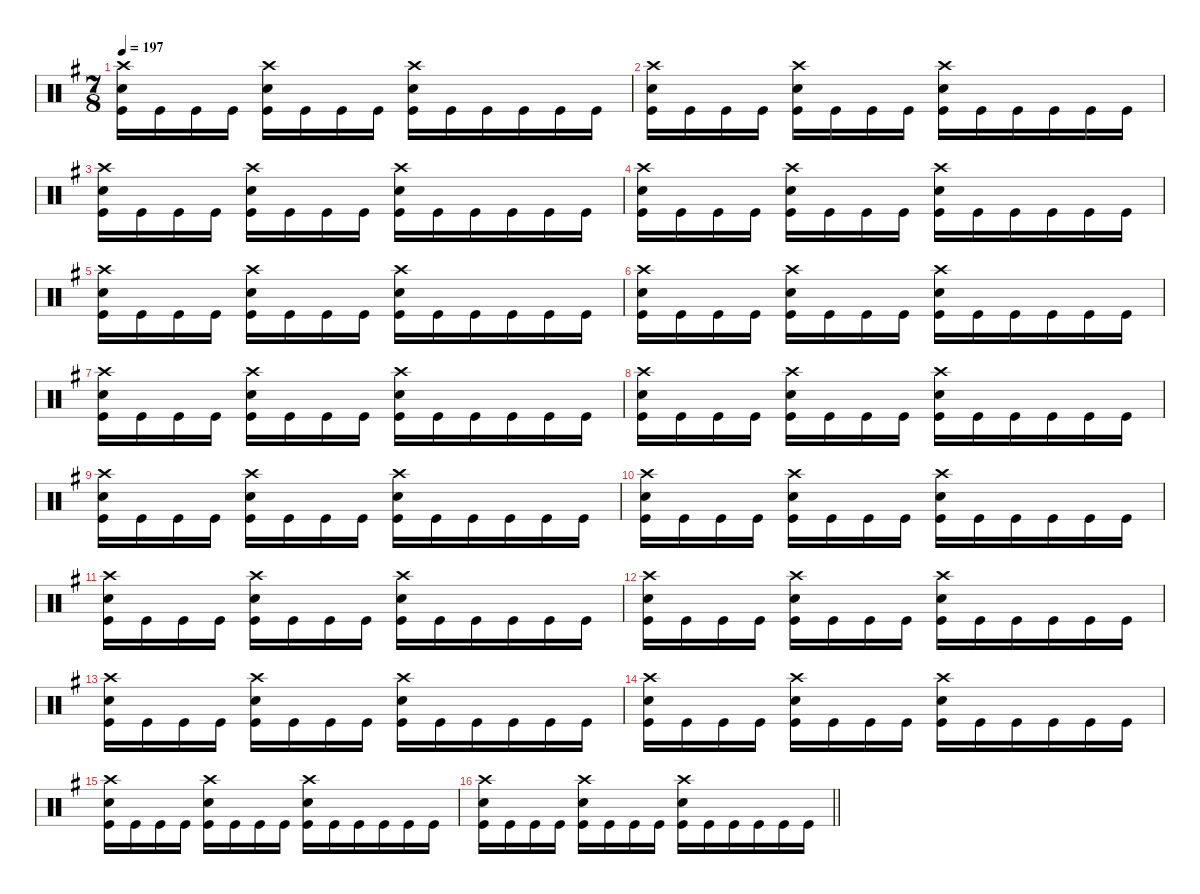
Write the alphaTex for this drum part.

\defaultSystemsLayout 4
\hideDynamics
\bracketExtendMode nobrackets
\singleTrackTrackNamePolicy hidden
\multiTrackTrackNamePolicy hidden
\firstSystemTrackNameMode fullname
\firstSystemTrackNameOrientation horizontal
\otherSystemsTrackNameOrientation horizontal
\track ("Drums" "drm.") {defaultSystemsLayout 4 instrument percussion}
\staff {score}
\articulation defaults
\ts (7 8)
\beaming (8 2 2 3)
\tempo 197
\clef neutral
\ks eminor
("Crash high (hit)"{acc forcenatural} "Snare (hit) 2"{acc forcenatural} "Kick (hit)"{acc forcenatural}).16{dy f beam Down} "Kick (hit)"{acc forcenatural}.16{beam Down} "Kick (hit)"{acc forcenatural}.16{beam Down} "Kick (hit)"{acc forcenatural}.16{beam Down} ("Crash high (hit)"{acc forcenatural} "Snare (hit) 2"{acc forcenatural} "Kick (hit)"{acc forcenatural}).16{beam Down} "Kick (hit)"{acc forcenatural}.16{beam Down} "Kick (hit)"{acc forcenatural}.16{beam Down} "Kick (hit)"{acc forcenatural}.16{beam Down} ("Crash high (hit)"{acc forcenatural} "Snare (hit) 2"{acc forcenatural} "Kick (hit)"{acc forcenatural}).16{beam Down} "Kick (hit)"{acc forcenatural}.16{beam Down} "Kick (hit)"{acc forcenatural}.16{beam Down} "Kick (hit)"{acc forcenatural}.16{beam Down} "Kick (hit)"{acc forcenatural}.16{beam Down} "Kick (hit)"{acc forcenatural}.16{beam Down} |
("Crash high (hit)"{acc forcenatural} "Snare (hit) 2"{acc forcenatural} "Kick (hit)"{acc forcenatural}).16{beam Down} "Kick (hit)"{acc forcenatural}.16{beam Down} "Kick (hit)"{acc forcenatural}.16{beam Down} "Kick (hit)"{acc forcenatural}.16{beam Down} ("Crash high (hit)"{acc forcenatural} "Snare (hit) 2"{acc forcenatural} "Kick (hit)"{acc forcenatural}).16{beam Down} "Kick (hit)"{acc forcenatural}.16{beam Down} "Kick (hit)"{acc forcenatural}.16{beam Down} "Kick (hit)"{acc forcenatural}.16{beam Down} ("Crash high (hit)"{acc forcenatural} "Snare (hit) 2"{acc forcenatural} "Kick (hit)"{acc forcenatural}).16{beam Down} "Kick (hit)"{acc forcenatural}.16{beam Down} "Kick (hit)"{acc forcenatural}.16{beam Down} "Kick (hit)"{acc forcenatural}.16{beam Down} "Kick (hit)"{acc forcenatural}.16{beam Down} "Kick (hit)"{acc forcenatural}.16{beam Down} |
("Crash high (hit)"{acc forcenatural} "Snare (hit) 2"{acc forcenatural} "Kick (hit)"{acc forcenatural}).16{beam Down} "Kick (hit)"{acc forcenatural}.16{beam Down} "Kick (hit)"{acc forcenatural}.16{beam Down} "Kick (hit)"{acc forcenatural}.16{beam Down} ("Crash high (hit)"{acc forcenatural} "Snare (hit) 2"{acc forcenatural} "Kick (hit)"{acc forcenatural}).16{beam Down} "Kick (hit)"{acc forcenatural}.16{beam Down} "Kick (hit)"{acc forcenatural}.16{beam Down} "Kick (hit)"{acc forcenatural}.16{beam Down} ("Crash high (hit)"{acc forcenatural} "Snare (hit) 2"{acc forcenatural} "Kick (hit)"{acc forcenatural}).16{beam Down} "Kick (hit)"{acc forcenatural}.16{beam Down} "Kick (hit)"{acc forcenatural}.16{beam Down} "Kick (hit)"{acc forcenatural}.16{beam Down} "Kick (hit)"{acc forcenatural}.16{beam Down} "Kick (hit)"{acc forcenatural}.16{beam Down} |
("Crash high (hit)"{acc forcenatural} "Snare (hit) 2"{acc forcenatural} "Kick (hit)"{acc forcenatural}).16{beam Down} "Kick (hit)"{acc forcenatural}.16{beam Down} "Kick (hit)"{acc forcenatural}.16{beam Down} "Kick (hit)"{acc forcenatural}.16{beam Down} ("Crash high (hit)"{acc forcenatural} "Snare (hit) 2"{acc forcenatural} "Kick (hit)"{acc forcenatural}).16{beam Down} "Kick (hit)"{acc forcenatural}.16{beam Down} "Kick (hit)"{acc forcenatural}.16{beam Down} "Kick (hit)"{acc forcenatural}.16{beam Down} ("Crash high (hit)"{acc forcenatural} "Snare (hit) 2"{acc forcenatural} "Kick (hit)"{acc forcenatural}).16{beam Down} "Kick (hit)"{acc forcenatural}.16{beam Down} "Kick (hit)"{acc forcenatural}.16{beam Down} "Kick (hit)"{acc forcenatural}.16{beam Down} "Kick (hit)"{acc forcenatural}.16{beam Down} "Kick (hit)"{acc forcenatural}.16{beam Down} |
("Crash high (hit)"{acc forcenatural} "Snare (hit) 2"{acc forcenatural} "Kick (hit)"{acc forcenatural}).16{beam Down} "Kick (hit)"{acc forcenatural}.16{beam Down} "Kick (hit)"{acc forcenatural}.16{beam Down} "Kick (hit)"{acc forcenatural}.16{beam Down} ("Crash high (hit)"{acc forcenatural} "Snare (hit) 2"{acc forcenatural} "Kick (hit)"{acc forcenatural}).16{beam Down} "Kick (hit)"{acc forcenatural}.16{beam Down} "Kick (hit)"{acc forcenatural}.16{beam Down} "Kick (hit)"{acc forcenatural}.16{beam Down} ("Crash high (hit)"{acc forcenatural} "Snare (hit) 2"{acc forcenatural} "Kick (hit)"{acc forcenatural}).16{beam Down} "Kick (hit)"{acc forcenatural}.16{beam Down} "Kick (hit)"{acc forcenatural}.16{beam Down} "Kick (hit)"{acc forcenatural}.16{beam Down} "Kick (hit)"{acc forcenatural}.16{beam Down} "Kick (hit)"{acc forcenatural}.16{beam Down} |
("Crash high (hit)"{acc forcenatural} "Snare (hit) 2"{acc forcenatural} "Kick (hit)"{acc forcenatural}).16{beam Down} "Kick (hit)"{acc forcenatural}.16{beam Down} "Kick (hit)"{acc forcenatural}.16{beam Down} "Kick (hit)"{acc forcenatural}.16{beam Down} ("Crash high (hit)"{acc forcenatural} "Snare (hit) 2"{acc forcenatural} "Kick (hit)"{acc forcenatural}).16{beam Down} "Kick (hit)"{acc forcenatural}.16{beam Down} "Kick (hit)"{acc forcenatural}.16{beam Down} "Kick (hit)"{acc forcenatural}.16{beam Down} ("Crash high (hit)"{acc forcenatural} "Snare (hit) 2"{acc forcenatural} "Kick (hit)"{acc forcenatural}).16{beam Down} "Kick (hit)"{acc forcenatural}.16{beam Down} "Kick (hit)"{acc forcenatural}.16{beam Down} "Kick (hit)"{acc forcenatural}.16{beam Down} "Kick (hit)"{acc forcenatural}.16{beam Down} "Kick (hit)"{acc forcenatural}.16{beam Down} |
("Crash high (hit)"{acc forcenatural} "Snare (hit) 2"{acc forcenatural} "Kick (hit)"{acc forcenatural}).16{beam Down} "Kick (hit)"{acc forcenatural}.16{beam Down} "Kick (hit)"{acc forcenatural}.16{beam Down} "Kick (hit)"{acc forcenatural}.16{beam Down} ("Crash high (hit)"{acc forcenatural} "Snare (hit) 2"{acc forcenatural} "Kick (hit)"{acc forcenatural}).16{beam Down} "Kick (hit)"{acc forcenatural}.16{beam Down} "Kick (hit)"{acc forcenatural}.16{beam Down} "Kick (hit)"{acc forcenatural}.16{beam Down} ("Crash high (hit)"{acc forcenatural} "Snare (hit) 2"{acc forcenatural} "Kick (hit)"{acc forcenatural}).16{beam Down} "Kick (hit)"{acc forcenatural}.16{beam Down} "Kick (hit)"{acc forcenatural}.16{beam Down} "Kick (hit)"{acc forcenatural}.16{beam Down} "Kick (hit)"{acc forcenatural}.16{beam Down} "Kick (hit)"{acc forcenatural}.16{beam Down} |
("Crash high (hit)"{acc forcenatural} "Snare (hit) 2"{acc forcenatural} "Kick (hit)"{acc forcenatural}).16{beam Down} "Kick (hit)"{acc forcenatural}.16{beam Down} "Kick (hit)"{acc forcenatural}.16{beam Down} "Kick (hit)"{acc forcenatural}.16{beam Down} ("Crash high (hit)"{acc forcenatural} "Snare (hit) 2"{acc forcenatural} "Kick (hit)"{acc forcenatural}).16{beam Down} "Kick (hit)"{acc forcenatural}.16{beam Down} "Kick (hit)"{acc forcenatural}.16{beam Down} "Kick (hit)"{acc forcenatural}.16{beam Down} ("Crash high (hit)"{acc forcenatural} "Snare (hit) 2"{acc forcenatural} "Kick (hit)"{acc forcenatural}).16{beam Down} "Kick (hit)"{acc forcenatural}.16{beam Down} "Kick (hit)"{acc forcenatural}.16{beam Down} "Kick (hit)"{acc forcenatural}.16{beam Down} "Kick (hit)"{acc forcenatural}.16{beam Down} "Kick (hit)"{acc forcenatural}.16{beam Down} |
("Crash high (hit)"{acc forcenatural} "Snare (hit) 2"{acc forcenatural} "Kick (hit)"{acc forcenatural}).16{beam Down} "Kick (hit)"{acc forcenatural}.16{beam Down} "Kick (hit)"{acc forcenatural}.16{beam Down} "Kick (hit)"{acc forcenatural}.16{beam Down} ("Crash high (hit)"{acc forcenatural} "Snare (hit) 2"{acc forcenatural} "Kick (hit)"{acc forcenatural}).16{beam Down} "Kick (hit)"{acc forcenatural}.16{beam Down} "Kick (hit)"{acc forcenatural}.16{beam Down} "Kick (hit)"{acc forcenatural}.16{beam Down} ("Crash high (hit)"{acc forcenatural} "Snare (hit) 2"{acc forcenatural} "Kick (hit)"{acc forcenatural}).16{beam Down} "Kick (hit)"{acc forcenatural}.16{beam Down} "Kick (hit)"{acc forcenatural}.16{beam Down} "Kick (hit)"{acc forcenatural}.16{beam Down} "Kick (hit)"{acc forcenatural}.16{beam Down} "Kick (hit)"{acc forcenatural}.16{beam Down} |
("Crash high (hit)"{acc forcenatural} "Snare (hit) 2"{acc forcenatural} "Kick (hit)"{acc forcenatural}).16{beam Down} "Kick (hit)"{acc forcenatural}.16{beam Down} "Kick (hit)"{acc forcenatural}.16{beam Down} "Kick (hit)"{acc forcenatural}.16{beam Down} ("Crash high (hit)"{acc forcenatural} "Snare (hit) 2"{acc forcenatural} "Kick (hit)"{acc forcenatural}).16{beam Down} "Kick (hit)"{acc forcenatural}.16{beam Down} "Kick (hit)"{acc forcenatural}.16{beam Down} "Kick (hit)"{acc forcenatural}.16{beam Down} ("Crash high (hit)"{acc forcenatural} "Snare (hit) 2"{acc forcenatural} "Kick (hit)"{acc forcenatural}).16{beam Down} "Kick (hit)"{acc forcenatural}.16{beam Down} "Kick (hit)"{acc forcenatural}.16{beam Down} "Kick (hit)"{acc forcenatural}.16{beam Down} "Kick (hit)"{acc forcenatural}.16{beam Down} "Kick (hit)"{acc forcenatural}.16{beam Down} |
("Crash high (hit)"{acc forcenatural} "Snare (hit) 2"{acc forcenatural} "Kick (hit)"{acc forcenatural}).16{beam Down} "Kick (hit)"{acc forcenatural}.16{beam Down} "Kick (hit)"{acc forcenatural}.16{beam Down} "Kick (hit)"{acc forcenatural}.16{beam Down} ("Crash high (hit)"{acc forcenatural} "Snare (hit) 2"{acc forcenatural} "Kick (hit)"{acc forcenatural}).16{beam Down} "Kick (hit)"{acc forcenatural}.16{beam Down} "Kick (hit)"{acc forcenatural}.16{beam Down} "Kick (hit)"{acc forcenatural}.16{beam Down} ("Crash high (hit)"{acc forcenatural} "Snare (hit) 2"{acc forcenatural} "Kick (hit)"{acc forcenatural}).16{beam Down} "Kick (hit)"{acc forcenatural}.16{beam Down} "Kick (hit)"{acc forcenatural}.16{beam Down} "Kick (hit)"{acc forcenatural}.16{beam Down} "Kick (hit)"{acc forcenatural}.16{beam Down} "Kick (hit)"{acc forcenatural}.16{beam Down} |
("Crash high (hit)"{acc forcenatural} "Snare (hit) 2"{acc forcenatural} "Kick (hit)"{acc forcenatural}).16{beam Down} "Kick (hit)"{acc forcenatural}.16{beam Down} "Kick (hit)"{acc forcenatural}.16{beam Down} "Kick (hit)"{acc forcenatural}.16{beam Down} ("Crash high (hit)"{acc forcenatural} "Snare (hit) 2"{acc forcenatural} "Kick (hit)"{acc forcenatural}).16{beam Down} "Kick (hit)"{acc forcenatural}.16{beam Down} "Kick (hit)"{acc forcenatural}.16{beam Down} "Kick (hit)"{acc forcenatural}.16{beam Down} ("Crash high (hit)"{acc forcenatural} "Snare (hit) 2"{acc forcenatural} "Kick (hit)"{acc forcenatural}).16{beam Down} "Kick (hit)"{acc forcenatural}.16{beam Down} "Kick (hit)"{acc forcenatural}.16{beam Down} "Kick (hit)"{acc forcenatural}.16{beam Down} "Kick (hit)"{acc forcenatural}.16{beam Down} "Kick (hit)"{acc forcenatural}.16{beam Down} |
("Crash high (hit)"{acc forcenatural} "Snare (hit) 2"{acc forcenatural} "Kick (hit)"{acc forcenatural}).16{beam Down} "Kick (hit)"{acc forcenatural}.16{beam Down} "Kick (hit)"{acc forcenatural}.16{beam Down} "Kick (hit)"{acc forcenatural}.16{beam Down} ("Crash high (hit)"{acc forcenatural} "Snare (hit) 2"{acc forcenatural} "Kick (hit)"{acc forcenatural}).16{beam Down} "Kick (hit)"{acc forcenatural}.16{beam Down} "Kick (hit)"{acc forcenatural}.16{beam Down} "Kick (hit)"{acc forcenatural}.16{beam Down} ("Crash high (hit)"{acc forcenatural} "Snare (hit) 2"{acc forcenatural} "Kick (hit)"{acc forcenatural}).16{beam Down} "Kick (hit)"{acc forcenatural}.16{beam Down} "Kick (hit)"{acc forcenatural}.16{beam Down} "Kick (hit)"{acc forcenatural}.16{beam Down} "Kick (hit)"{acc forcenatural}.16{beam Down} "Kick (hit)"{acc forcenatural}.16{beam Down} |
("Crash high (hit)"{acc forcenatural} "Snare (hit) 2"{acc forcenatural} "Kick (hit)"{acc forcenatural}).16{beam Down} "Kick (hit)"{acc forcenatural}.16{beam Down} "Kick (hit)"{acc forcenatural}.16{beam Down} "Kick (hit)"{acc forcenatural}.16{beam Down} ("Crash high (hit)"{acc forcenatural} "Snare (hit) 2"{acc forcenatural} "Kick (hit)"{acc forcenatural}).16{beam Down} "Kick (hit)"{acc forcenatural}.16{beam Down} "Kick (hit)"{acc forcenatural}.16{beam Down} "Kick (hit)"{acc forcenatural}.16{beam Down} ("Crash high (hit)"{acc forcenatural} "Snare (hit) 2"{acc forcenatural} "Kick (hit)"{acc forcenatural}).16{beam Down} "Kick (hit)"{acc forcenatural}.16{beam Down} "Kick (hit)"{acc forcenatural}.16{beam Down} "Kick (hit)"{acc forcenatural}.16{beam Down} "Kick (hit)"{acc forcenatural}.16{beam Down} "Kick (hit)"{acc forcenatural}.16{beam Down} |
("Crash high (hit)"{acc forcenatural} "Snare (hit) 2"{acc forcenatural} "Kick (hit)"{acc forcenatural}).16{beam Down} "Kick (hit)"{acc forcenatural}.16{beam Down} "Kick (hit)"{acc forcenatural}.16{beam Down} "Kick (hit)"{acc forcenatural}.16{beam Down} ("Crash high (hit)"{acc forcenatural} "Snare (hit) 2"{acc forcenatural} "Kick (hit)"{acc forcenatural}).16{beam Down} "Kick (hit)"{acc forcenatural}.16{beam Down} "Kick (hit)"{acc forcenatural}.16{beam Down} "Kick (hit)"{acc forcenatural}.16{beam Down} ("Crash high (hit)"{acc forcenatural} "Snare (hit) 2"{acc forcenatural} "Kick (hit)"{acc forcenatural}).16{beam Down} "Kick (hit)"{acc forcenatural}.16{beam Down} "Kick (hit)"{acc forcenatural}.16{beam Down} "Kick (hit)"{acc forcenatural}.16{beam Down} "Kick (hit)"{acc forcenatural}.16{beam Down} "Kick (hit)"{acc forcenatural}.16{beam Down} |
\barLineRight lightlight
("Crash high (hit)"{acc forcenatural} "Snare (hit) 2"{acc forcenatural} "Kick (hit)"{acc forcenatural}).16{beam Down} "Kick (hit)"{acc forcenatural}.16{beam Down} "Kick (hit)"{acc forcenatural}.16{beam Down} "Kick (hit)"{acc forcenatural}.16{beam Down} ("Crash high (hit)"{acc forcenatural} "Snare (hit) 2"{acc forcenatural} "Kick (hit)"{acc forcenatural}).16{beam Down} "Kick (hit)"{acc forcenatural}.16{beam Down} "Kick (hit)"{acc forcenatural}.16{beam Down} "Kick (hit)"{acc forcenatural}.16{beam Down} ("Crash high (hit)"{acc forcenatural} "Snare (hit) 2"{acc forcenatural} "Kick (hit)"{acc forcenatural}).16{beam Down} "Kick (hit)"{acc forcenatural}.16{beam Down} "Kick (hit)"{acc forcenatural}.16{beam Down} "Kick (hit)"{acc forcenatural}.16{beam Down} "Kick (hit)"{acc forcenatural}.16{beam Down} "Kick (hit)"{acc forcenatural}.16{beam Down}
